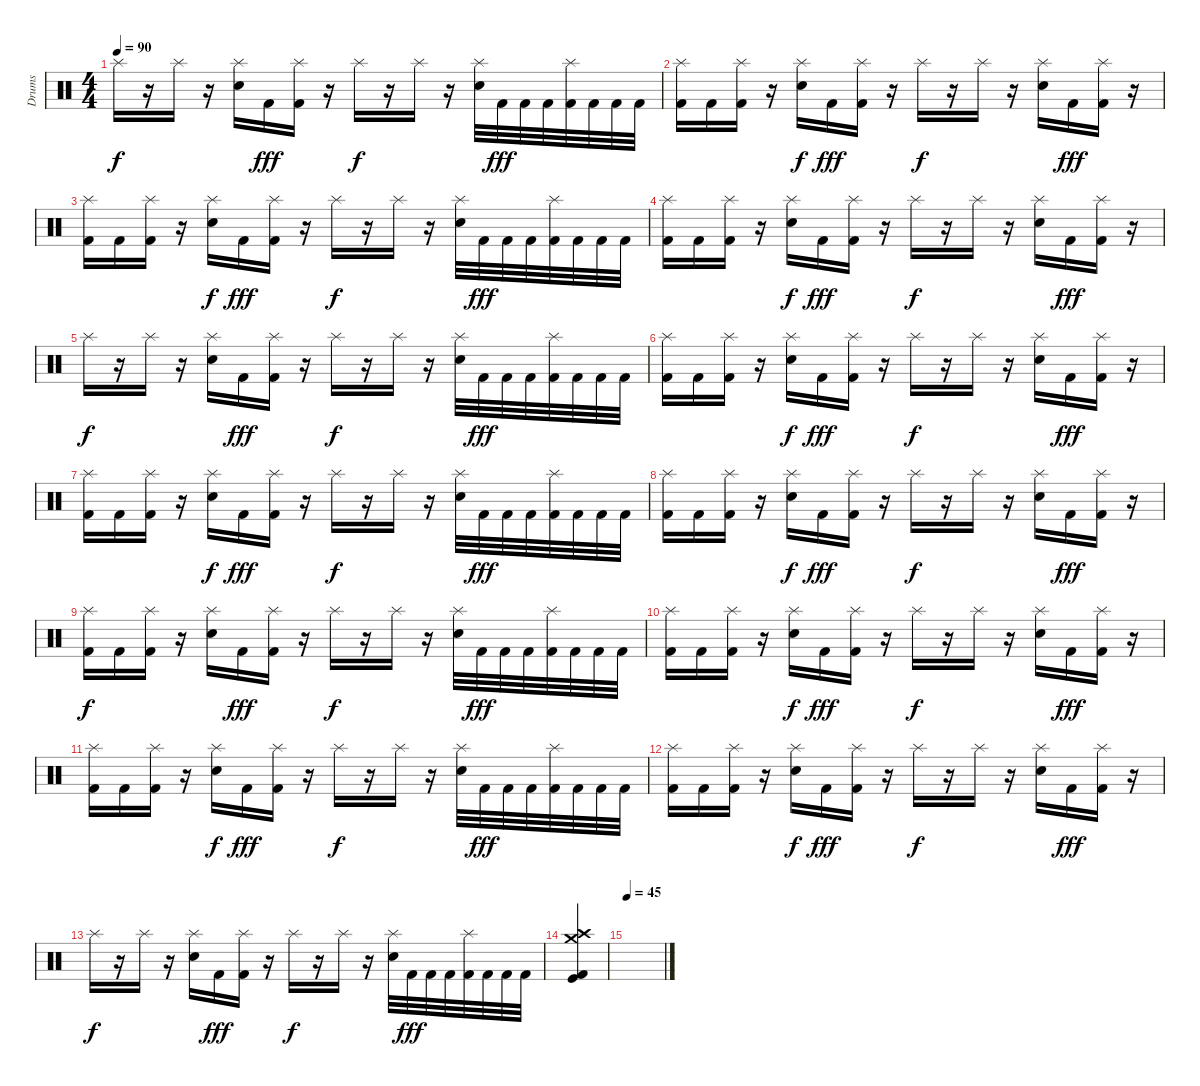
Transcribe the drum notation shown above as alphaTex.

\track ("Drums" "Drums") {instrument percussion}
\staff {score}
\articulation defaults
\ts (4 4)
\tempo 90
\clef neutral
\ks c "Splash (hit)".16{dy f}
r.16 "Splash (hit)".16 r.16 ("Splash (hit)" "Electric Snare (hit)").16 "Kick (hit) 2".16{dy fff} ("Splash (hit)" "Kick (hit) 2").16 r.16 "Splash (hit)".16{dy f} r.16 "Splash (hit)".16 r.16 ("Splash (hit)" "Electric Snare (hit)").32 "Kick (hit) 2".32{dy fff} "Kick (hit) 2".32 "Kick (hit) 2".32 ("Splash (hit)" "Kick (hit) 2").32 "Kick (hit) 2".32 "Kick (hit) 2".32 "Kick (hit) 2".32 |
("Splash (hit)" "Kick (hit) 2").16 "Kick (hit) 2".16 ("Splash (hit)" "Kick (hit) 2").16 r.16 ("Splash (hit)" "Electric Snare (hit)").16{dy f} "Kick (hit) 2".16{dy fff} ("Splash (hit)" "Kick (hit) 2").16 r.16 "Splash (hit)".16{dy f} r.16 "Splash (hit)".16 r.16 ("Splash (hit)" "Electric Snare (hit)").16 "Kick (hit) 2".16{dy fff} ("Splash (hit)" "Kick (hit) 2").16 r.16 |
("Splash (hit)" "Kick (hit) 2").16 "Kick (hit) 2".16 ("Splash (hit)" "Kick (hit) 2").16 r.16 ("Splash (hit)" "Electric Snare (hit)").16{dy f} "Kick (hit) 2".16{dy fff} ("Splash (hit)" "Kick (hit) 2").16 r.16 "Splash (hit)".16{dy f} r.16 "Splash (hit)".16 r.16 ("Splash (hit)" "Electric Snare (hit)").32 "Kick (hit) 2".32{dy fff} "Kick (hit) 2".32 "Kick (hit) 2".32 ("Splash (hit)" "Kick (hit) 2").32 "Kick (hit) 2".32 "Kick (hit) 2".32 "Kick (hit) 2".32 |
("Splash (hit)" "Kick (hit) 2").16 "Kick (hit) 2".16 ("Splash (hit)" "Kick (hit) 2").16 r.16 ("Splash (hit)" "Electric Snare (hit)").16{dy f} "Kick (hit) 2".16{dy fff} ("Splash (hit)" "Kick (hit) 2").16 r.16 "Splash (hit)".16{dy f} r.16 "Splash (hit)".16 r.16 ("Splash (hit)" "Electric Snare (hit)").16 "Kick (hit) 2".16{dy fff} ("Splash (hit)" "Kick (hit) 2").16 r.16 |
"Splash (hit)".16{dy f} r.16 "Splash (hit)".16 r.16 ("Splash (hit)" "Electric Snare (hit)").16 "Kick (hit) 2".16{dy fff} ("Splash (hit)" "Kick (hit) 2").16 r.16 "Splash (hit)".16{dy f} r.16 "Splash (hit)".16 r.16 ("Splash (hit)" "Electric Snare (hit)").32 "Kick (hit) 2".32{dy fff} "Kick (hit) 2".32 "Kick (hit) 2".32 ("Splash (hit)" "Kick (hit) 2").32 "Kick (hit) 2".32 "Kick (hit) 2".32 "Kick (hit) 2".32 |
("Splash (hit)" "Kick (hit) 2").16 "Kick (hit) 2".16 ("Splash (hit)" "Kick (hit) 2").16 r.16 ("Splash (hit)" "Electric Snare (hit)").16{dy f} "Kick (hit) 2".16{dy fff} ("Splash (hit)" "Kick (hit) 2").16 r.16 "Splash (hit)".16{dy f} r.16 "Splash (hit)".16 r.16 ("Splash (hit)" "Electric Snare (hit)").16 "Kick (hit) 2".16{dy fff} ("Splash (hit)" "Kick (hit) 2").16 r.16 |
("Splash (hit)" "Kick (hit) 2").16 "Kick (hit) 2".16 ("Splash (hit)" "Kick (hit) 2").16 r.16 ("Splash (hit)" "Electric Snare (hit)").16{dy f} "Kick (hit) 2".16{dy fff} ("Splash (hit)" "Kick (hit) 2").16 r.16 "Splash (hit)".16{dy f} r.16 "Splash (hit)".16 r.16 ("Splash (hit)" "Electric Snare (hit)").32 "Kick (hit) 2".32{dy fff} "Kick (hit) 2".32 "Kick (hit) 2".32 ("Splash (hit)" "Kick (hit) 2").32 "Kick (hit) 2".32 "Kick (hit) 2".32 "Kick (hit) 2".32 |
("Splash (hit)" "Kick (hit) 2").16 "Kick (hit) 2".16 ("Splash (hit)" "Kick (hit) 2").16 r.16 ("Splash (hit)" "Electric Snare (hit)").16{dy f} "Kick (hit) 2".16{dy fff} ("Splash (hit)" "Kick (hit) 2").16 r.16 "Splash (hit)".16{dy f} r.16 "Splash (hit)".16 r.16 ("Splash (hit)" "Electric Snare (hit)").16 "Kick (hit) 2".16{dy fff} ("Splash (hit)" "Kick (hit) 2").16 r.16 |
("Splash (hit)" "Kick (hit) 2").16{dy f} "Kick (hit) 2".16 ("Splash (hit)" "Kick (hit) 2").16 r.16 ("Splash (hit)" "Electric Snare (hit)").16 "Kick (hit) 2".16{dy fff} ("Splash (hit)" "Kick (hit) 2").16 r.16 "Splash (hit)".16{dy f} r.16 "Splash (hit)".16 r.16 ("Splash (hit)" "Electric Snare (hit)").32 "Kick (hit) 2".32{dy fff} "Kick (hit) 2".32 "Kick (hit) 2".32 ("Splash (hit)" "Kick (hit) 2").32 "Kick (hit) 2".32 "Kick (hit) 2".32 "Kick (hit) 2".32 |
("Splash (hit)" "Kick (hit) 2").16 "Kick (hit) 2".16 ("Splash (hit)" "Kick (hit) 2").16 r.16 ("Splash (hit)" "Electric Snare (hit)").16{dy f} "Kick (hit) 2".16{dy fff} ("Splash (hit)" "Kick (hit) 2").16 r.16 "Splash (hit)".16{dy f} r.16 "Splash (hit)".16 r.16 ("Splash (hit)" "Electric Snare (hit)").16 "Kick (hit) 2".16{dy fff} ("Splash (hit)" "Kick (hit) 2").16 r.16 |
("Splash (hit)" "Kick (hit) 2").16 "Kick (hit) 2".16 ("Splash (hit)" "Kick (hit) 2").16 r.16 ("Splash (hit)" "Electric Snare (hit)").16{dy f} "Kick (hit) 2".16{dy fff} ("Splash (hit)" "Kick (hit) 2").16 r.16 "Splash (hit)".16{dy f} r.16 "Splash (hit)".16 r.16 ("Splash (hit)" "Electric Snare (hit)").32 "Kick (hit) 2".32{dy fff} "Kick (hit) 2".32 "Kick (hit) 2".32 ("Splash (hit)" "Kick (hit) 2").32 "Kick (hit) 2".32 "Kick (hit) 2".32 "Kick (hit) 2".32 |
("Splash (hit)" "Kick (hit) 2").16 "Kick (hit) 2".16 ("Splash (hit)" "Kick (hit) 2").16 r.16 ("Splash (hit)" "Electric Snare (hit)").16{dy f} "Kick (hit) 2".16{dy fff} ("Splash (hit)" "Kick (hit) 2").16 r.16 "Splash (hit)".16{dy f} r.16 "Splash (hit)".16 r.16 ("Splash (hit)" "Electric Snare (hit)").16 "Kick (hit) 2".16{dy fff} ("Splash (hit)" "Kick (hit) 2").16 r.16 |
"Splash (hit)".16{dy f} r.16 "Splash (hit)".16 r.16 ("Splash (hit)" "Electric Snare (hit)").16 "Kick (hit) 2".16{dy fff} ("Splash (hit)" "Kick (hit) 2").16 r.16 "Splash (hit)".16{dy f} r.16 "Splash (hit)".16 r.16 ("Splash (hit)" "Electric Snare (hit)").32 "Kick (hit) 2".32{dy fff} "Kick (hit) 2".32 "Kick (hit) 2".32 ("Splash (hit)" "Kick (hit) 2").32 "Kick (hit) 2".32 "Kick (hit) 2".32 "Kick (hit) 2".32 |
("Crash medium (hit)" "Crash high (hit)" "Kick (hit)" "Kick (hit) 2").4 |
\tempo 45
